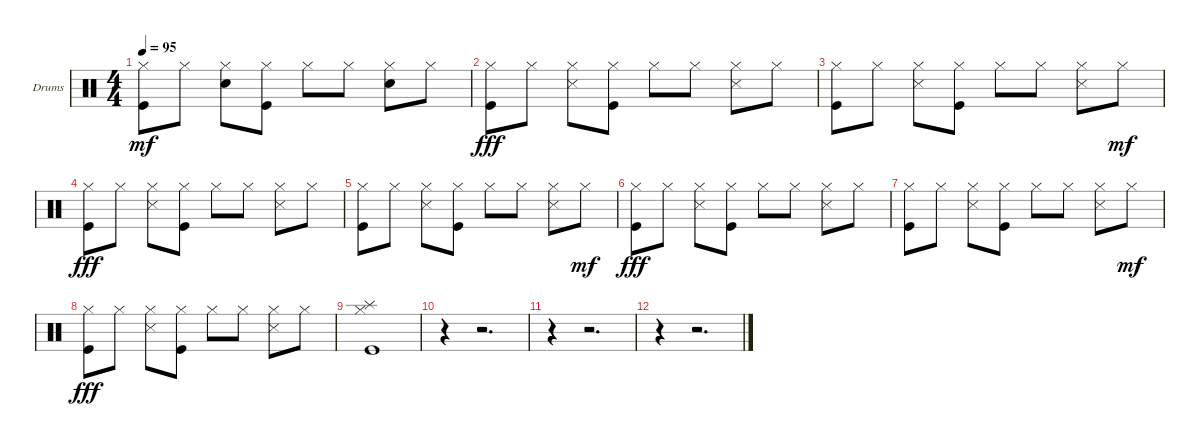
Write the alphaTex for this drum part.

\bracketExtendMode groupsimilarinstruments
\firstSystemTrackNameOrientation horizontal
\otherSystemsTrackNameOrientation horizontal
\track ("Drumkit" "Drums") {instrument percussion}
\staff {score}
\articulation defaults
\ts (4 4)
\tempo 95
\clef neutral
\ks c
("Hi-Hat (closed)" "Kick (hit)").8{dy mf} "Hi-Hat (closed)".8 ("Hi-Hat (closed)" "Snare (hit) 2").8 ("Hi-Hat (closed)" "Kick (hit)").8 "Hi-Hat (closed)".8 "Hi-Hat (closed)".8 ("Hi-Hat (closed)" "Snare (hit) 2").8 "Hi-Hat (closed)".8 |
("Kick (hit)" "Hi-Hat (closed)").8{dy fff} "Hi-Hat (closed)".8 ("Snare (side stick) 3" "Hi-Hat (closed)").8 ("Kick (hit)" "Hi-Hat (closed)").8 "Hi-Hat (closed)".8 "Hi-Hat (closed)".8 ("Snare (side stick) 3" "Hi-Hat (closed)").8 "Hi-Hat (closed)".8 |
("Kick (hit)" "Hi-Hat (closed)").8 "Hi-Hat (closed)".8 ("Snare (side stick) 3" "Hi-Hat (closed)").8 ("Kick (hit)" "Hi-Hat (closed)").8 "Hi-Hat (closed)".8 "Hi-Hat (closed)".8 ("Snare (side stick) 3" "Hi-Hat (closed)").8 "Hi-Hat (closed)".8{dy mf} |
("Kick (hit)" "Hi-Hat (closed)").8{dy fff} "Hi-Hat (closed)".8 ("Snare (side stick) 3" "Hi-Hat (closed)").8 ("Kick (hit)" "Hi-Hat (closed)").8 "Hi-Hat (closed)".8 "Hi-Hat (closed)".8 ("Snare (side stick) 3" "Hi-Hat (closed)").8 "Hi-Hat (closed)".8 |
("Kick (hit)" "Hi-Hat (closed)").8 "Hi-Hat (closed)".8 ("Snare (side stick) 3" "Hi-Hat (closed)").8 ("Kick (hit)" "Hi-Hat (closed)").8 "Hi-Hat (closed)".8 "Hi-Hat (closed)".8 ("Snare (side stick) 3" "Hi-Hat (closed)").8 "Hi-Hat (closed)".8{dy mf} |
("Kick (hit)" "Hi-Hat (closed)").8{dy fff} "Hi-Hat (closed)".8 ("Snare (side stick) 3" "Hi-Hat (closed)").8 ("Kick (hit)" "Hi-Hat (closed)").8 "Hi-Hat (closed)".8 "Hi-Hat (closed)".8 ("Snare (side stick) 3" "Hi-Hat (closed)").8 "Hi-Hat (closed)".8 |
("Kick (hit)" "Hi-Hat (closed)").8 "Hi-Hat (closed)".8 ("Snare (side stick) 3" "Hi-Hat (closed)").8 ("Kick (hit)" "Hi-Hat (closed)").8 "Hi-Hat (closed)".8 "Hi-Hat (closed)".8 ("Snare (side stick) 3" "Hi-Hat (closed)").8 "Hi-Hat (closed)".8{dy mf} |
("Kick (hit)" "Hi-Hat (closed)").8{dy fff} "Hi-Hat (closed)".8 ("Snare (side stick) 3" "Hi-Hat (closed)").8 ("Kick (hit)" "Hi-Hat (closed)").8 "Hi-Hat (closed)".8 "Hi-Hat (closed)".8 ("Snare (side stick) 3" "Hi-Hat (closed)").8 "Hi-Hat (closed)".8 |
("Splash (hit)" "Kick (hit)" "Hi-Hat (closed)").1 |
r.4 r.2{d} |
r.4 r.2{d} |
r.4 r.2{d}
